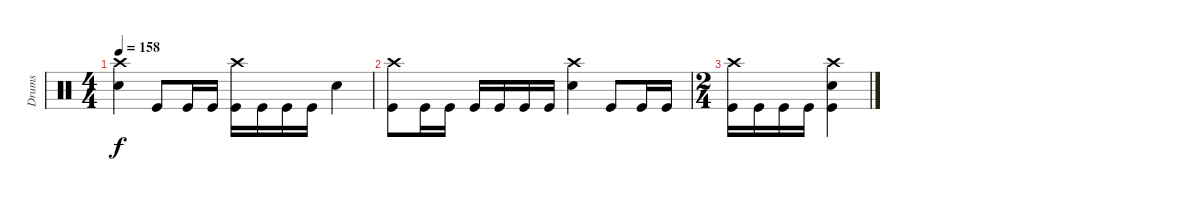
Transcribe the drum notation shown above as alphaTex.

\track ("Drums" "Drums") {instrument percussion}
\staff {score}
\articulation defaults
\ts (4 4)
\tempo 158
\clef neutral
\ks c
("Crash high (hit)" "Electric Snare (hit)").4{dy f} "Kick (hit)".8 "Kick (hit)".16 "Kick (hit)".16 ("Crash high (hit)" "Kick (hit)").16 "Kick (hit)".16 "Kick (hit)".16 "Kick (hit)".16 "Electric Snare (hit)".4 |
("Crash high (hit)" "Kick (hit)").8 "Kick (hit)".16 "Kick (hit)".16 "Kick (hit)".16 "Kick (hit)".16 "Kick (hit)".16 "Kick (hit)".16 ("Crash high (hit)" "Electric Snare (hit)").4 "Kick (hit)".8 "Kick (hit)".16 "Kick (hit)".16 |
\ts (2 4)
("Crash high (hit)" "Kick (hit)").16 "Kick (hit)".16 "Kick (hit)".16 "Kick (hit)".16 ("Crash high (hit)" "Electric Snare (hit)" "Kick (hit)").4
